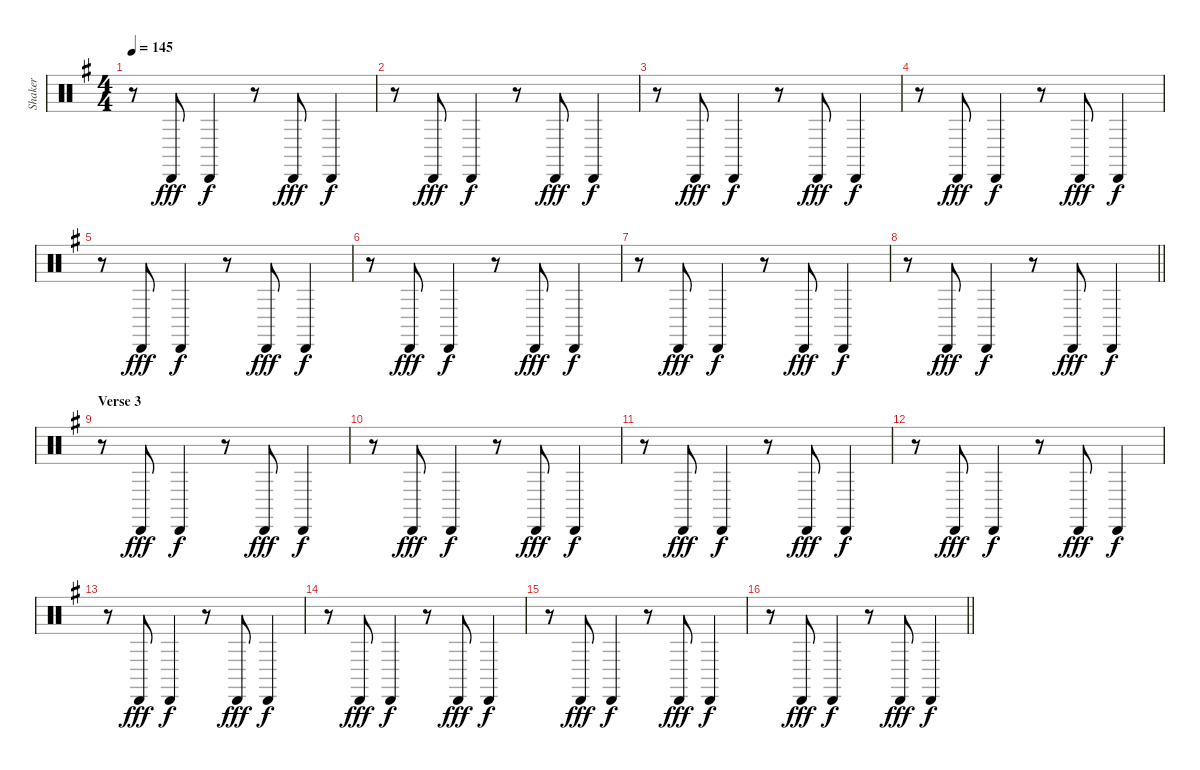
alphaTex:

\track ("Shaker" "Shaker") {instrument percussion}
\staff {score}
\articulation defaults
\ts (4 4)
\tempo 145
\clef neutral
\ks g
r.8{dy f} "Cabasa (hit)".8{dy fff} "Cabasa (hit)".4{dy f} r.8 "Cabasa (hit)".8{dy fff} "Cabasa (hit)".4{dy f} |
r.8 "Cabasa (hit)".8{dy fff} "Cabasa (hit)".4{dy f} r.8 "Cabasa (hit)".8{dy fff} "Cabasa (hit)".4{dy f} |
r.8 "Cabasa (hit)".8{dy fff} "Cabasa (hit)".4{dy f} r.8 "Cabasa (hit)".8{dy fff} "Cabasa (hit)".4{dy f} |
r.8 "Cabasa (hit)".8{dy fff} "Cabasa (hit)".4{dy f} r.8 "Cabasa (hit)".8{dy fff} "Cabasa (hit)".4{dy f} |
r.8 "Cabasa (hit)".8{dy fff} "Cabasa (hit)".4{dy f} r.8 "Cabasa (hit)".8{dy fff} "Cabasa (hit)".4{dy f} |
r.8 "Cabasa (hit)".8{dy fff} "Cabasa (hit)".4{dy f} r.8 "Cabasa (hit)".8{dy fff} "Cabasa (hit)".4{dy f} |
r.8 "Cabasa (hit)".8{dy fff} "Cabasa (hit)".4{dy f} r.8 "Cabasa (hit)".8{dy fff} "Cabasa (hit)".4{dy f} |
\barLineRight lightlight
r.8 "Cabasa (hit)".8{dy fff} "Cabasa (hit)".4{dy f} r.8 "Cabasa (hit)".8{dy fff} "Cabasa (hit)".4{dy f} |
\section ("" "Verse 3")
r.8 "Cabasa (hit)".8{dy fff} "Cabasa (hit)".4{dy f} r.8 "Cabasa (hit)".8{dy fff} "Cabasa (hit)".4{dy f} |
r.8 "Cabasa (hit)".8{dy fff} "Cabasa (hit)".4{dy f} r.8 "Cabasa (hit)".8{dy fff} "Cabasa (hit)".4{dy f} |
r.8 "Cabasa (hit)".8{dy fff} "Cabasa (hit)".4{dy f} r.8 "Cabasa (hit)".8{dy fff} "Cabasa (hit)".4{dy f} |
r.8 "Cabasa (hit)".8{dy fff} "Cabasa (hit)".4{dy f} r.8 "Cabasa (hit)".8{dy fff} "Cabasa (hit)".4{dy f} |
r.8 "Cabasa (hit)".8{dy fff} "Cabasa (hit)".4{dy f} r.8 "Cabasa (hit)".8{dy fff} "Cabasa (hit)".4{dy f} |
r.8 "Cabasa (hit)".8{dy fff} "Cabasa (hit)".4{dy f} r.8 "Cabasa (hit)".8{dy fff} "Cabasa (hit)".4{dy f} |
r.8 "Cabasa (hit)".8{dy fff} "Cabasa (hit)".4{dy f} r.8 "Cabasa (hit)".8{dy fff} "Cabasa (hit)".4{dy f} |
\barLineRight lightlight
r.8 "Cabasa (hit)".8{dy fff} "Cabasa (hit)".4{dy f} r.8 "Cabasa (hit)".8{dy fff} "Cabasa (hit)".4{dy f}
